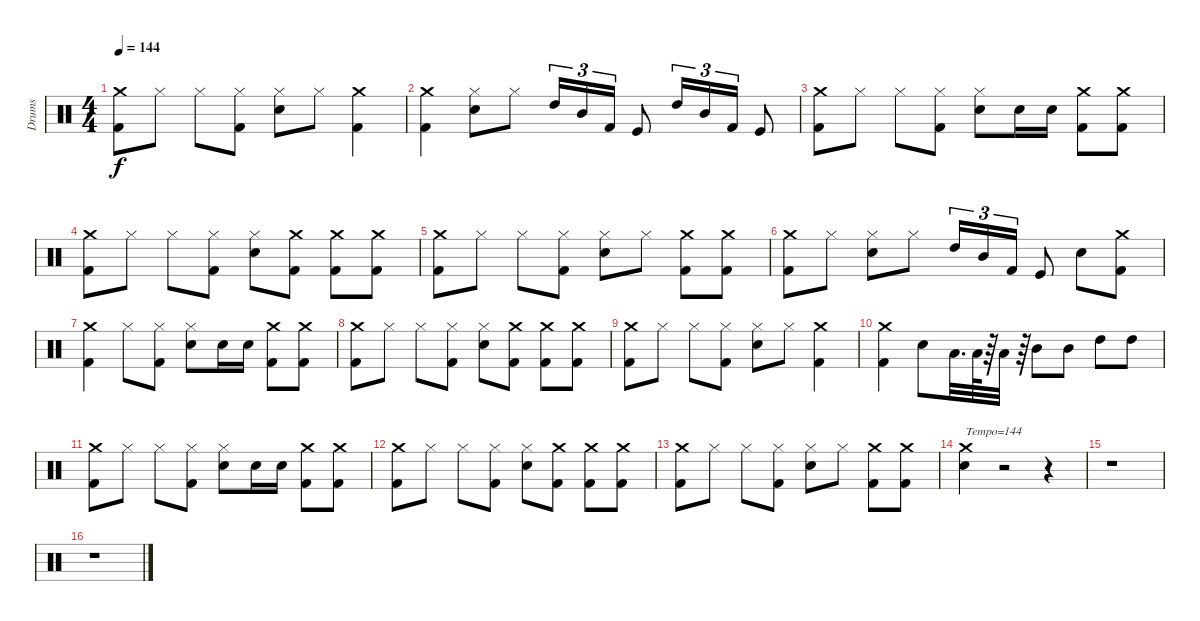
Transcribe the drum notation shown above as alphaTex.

\track ("Drums" "Drums") {instrument percussion}
\staff {score}
\articulation defaults
\ts (4 4)
\tempo 144
\clef neutral
\ks c
("Kick (hit) 2" "Crash medium (hit)").8{dy f} "Hi-Hat (closed)".8 "Hi-Hat (closed)".8 ("Kick (hit) 2" "Hi-Hat (closed)").8 ("Snare (hit) 2" "Hi-Hat (closed)").8 "Hi-Hat (closed)".8 ("Kick (hit) 2" "Crash medium (hit)").4 |
("Kick (hit) 2" "Crash medium (hit)").4 ("Hi-Hat (closed)" "Snare (hit) 2").8 "Hi-Hat (closed)".8 "High Tom (hit)".16{tu (3 2)} "Mid Tom (hit)".16{tu (3 2)} "Kick (hit) 2".16{tu (3 2)} "Kick (hit)".8 "High Tom (hit)".16{tu (3 2)} "Mid Tom (hit)".16{tu (3 2)} "Kick (hit) 2".16{tu (3 2)} "Kick (hit)".8 |
("Kick (hit) 2" "Crash medium (hit)").8 "Hi-Hat (closed)".8 "Hi-Hat (closed)".8 ("Kick (hit) 2" "Hi-Hat (closed)").8 ("Snare (hit) 2" "Hi-Hat (closed)").8 "Snare (hit) 2".16 "Snare (hit) 2".16 ("Kick (hit) 2" "Crash medium (hit)").8 ("Kick (hit) 2" "Crash medium (hit)").8 |
("Kick (hit) 2" "Crash medium (hit)").8 "Hi-Hat (closed)".8 "Hi-Hat (closed)".8 ("Kick (hit) 2" "Hi-Hat (closed)").8 ("Snare (hit) 2" "Hi-Hat (closed)").8 ("Kick (hit) 2" "Crash medium (hit)").8 ("Kick (hit) 2" "Crash medium (hit)").8 ("Kick (hit) 2" "Crash medium (hit)").8 |
("Kick (hit) 2" "Crash medium (hit)").8 "Hi-Hat (closed)".8 "Hi-Hat (closed)".8 ("Kick (hit) 2" "Hi-Hat (closed)").8 ("Snare (hit) 2" "Hi-Hat (closed)").8 "Hi-Hat (closed)".8 ("Kick (hit) 2" "Crash medium (hit)").8 ("Kick (hit) 2" "Crash medium (hit)").8 |
("Kick (hit) 2" "Crash medium (hit)").8 "Hi-Hat (closed)".8 ("Hi-Hat (closed)" "Snare (hit) 2").8 "Hi-Hat (closed)".8 "High Tom (hit)".16{tu (3 2)} "Mid Tom (hit)".16{tu (3 2)} "Kick (hit) 2".16{tu (3 2)} "Kick (hit)".8 "Snare (hit) 2".8 ("Kick (hit) 2" "Crash medium (hit)").8 |
("Kick (hit) 2" "Crash medium (hit)").4 "Hi-Hat (closed)".8 ("Kick (hit) 2" "Hi-Hat (closed)").8 ("Snare (hit) 2" "Hi-Hat (closed)").8 "Snare (hit) 2".16 "Snare (hit) 2".16 ("Crash medium (hit)" "Kick (hit) 2").8 ("Crash medium (hit)" "Kick (hit) 2").8 |
("Kick (hit) 2" "Crash medium (hit)").8 "Hi-Hat (closed)".8 "Hi-Hat (closed)".8 ("Kick (hit) 2" "Hi-Hat (closed)").8 ("Snare (hit) 2" "Hi-Hat (closed)").8 ("Kick (hit) 2" "Crash medium (hit)").8 ("Kick (hit) 2" "Crash medium (hit)").8 ("Kick (hit) 2" "Crash medium (hit)").8 |
("Kick (hit) 2" "Crash medium (hit)").8 "Hi-Hat (closed)".8 "Hi-Hat (closed)".8 ("Kick (hit) 2" "Hi-Hat (closed)").8 ("Snare (hit) 2" "Hi-Hat (closed)").8 "Hi-Hat (closed)".8 ("Crash medium (hit)" "Kick (hit) 2").4 |
("Kick (hit) 2" "Crash medium (hit)").4 "Snare (hit) 2".8 "Low Tom (hit)".32{d} "Low Tom (hit)".64 r.64 "Low Tom (hit)".32 r.64 "Mid Tom (hit)".8 "Mid Tom (hit)".8 "High Tom (hit)".8 "High Tom (hit)".8 |
("Kick (hit) 2" "Crash medium (hit)").8 "Hi-Hat (closed)".8 "Hi-Hat (closed)".8 ("Kick (hit) 2" "Hi-Hat (closed)").8 ("Snare (hit) 2" "Hi-Hat (closed)").8 "Snare (hit) 2".16 "Snare (hit) 2".16 ("Kick (hit) 2" "Crash medium (hit)").8 ("Kick (hit) 2" "Crash medium (hit)").8 |
("Crash medium (hit)" "Kick (hit) 2").8 "Hi-Hat (closed)".8 "Hi-Hat (closed)".8 ("Kick (hit) 2" "Hi-Hat (closed)").8 ("Snare (hit) 2" "Hi-Hat (closed)").8 ("Kick (hit) 2" "Crash medium (hit)").8 ("Kick (hit) 2" "Crash medium (hit)").8 ("Kick (hit) 2" "Crash medium (hit)").8 |
("Crash medium (hit)" "Kick (hit) 2").8 "Hi-Hat (closed)".8 "Hi-Hat (closed)".8 ("Kick (hit) 2" "Hi-Hat (closed)").8 ("Snare (hit) 2" "Hi-Hat (closed)").8 "Hi-Hat (closed)".8 ("Kick (hit) 2" "Crash medium (hit)").8 ("Kick (hit) 2" "Crash medium (hit)").8 |
("Snare (hit)" "Crash medium (hit)").4{txt "Tempo=144"} r.2 r.4 |
r.1 |
r.1
